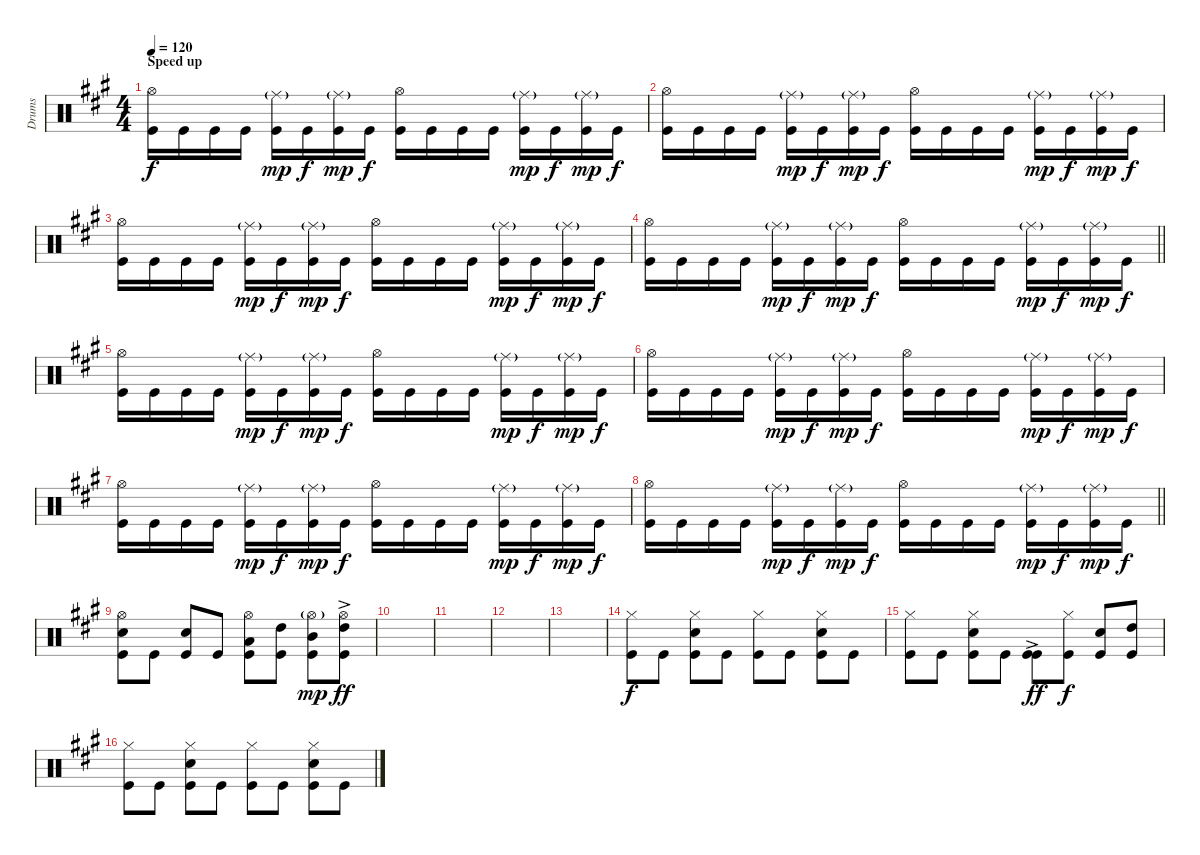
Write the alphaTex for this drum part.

\track ("Drums" "Drums") {instrument percussion}
\staff {score}
\articulation defaults
\ts (4 4)
\section ("" "Speed up")
\tempo 120
\clef neutral
\ks a
("Hi-Hat (open)" "Kick (hit)").16{dy f} "Kick (hit)".16 "Kick (hit)".16 "Kick (hit)".16 ("Ride (middle)"{g} "Kick (hit)").16{dy mp} "Kick (hit)".16{dy f} ("Ride (middle)"{g} "Kick (hit)").16{dy mp} "Kick (hit)".16{dy f} ("Hi-Hat (open)" "Kick (hit)").16 "Kick (hit)".16 "Kick (hit)".16 "Kick (hit)".16 ("Ride (middle)"{g} "Kick (hit)").16{dy mp} "Kick (hit)".16{dy f} ("Ride (middle)"{g} "Kick (hit)").16{dy mp} "Kick (hit)".16{dy f} |
("Hi-Hat (open)" "Kick (hit)").16 "Kick (hit)".16 "Kick (hit)".16 "Kick (hit)".16 ("Ride (middle)"{g} "Kick (hit)").16{dy mp} "Kick (hit)".16{dy f} ("Ride (middle)"{g} "Kick (hit)").16{dy mp} "Kick (hit)".16{dy f} ("Hi-Hat (open)" "Kick (hit)").16 "Kick (hit)".16 "Kick (hit)".16 "Kick (hit)".16 ("Ride (middle)"{g} "Kick (hit)").16{dy mp} "Kick (hit)".16{dy f} ("Ride (middle)"{g} "Kick (hit)").16{dy mp} "Kick (hit)".16{dy f} |
("Hi-Hat (open)" "Kick (hit)").16 "Kick (hit)".16 "Kick (hit)".16 "Kick (hit)".16 ("Ride (middle)"{g} "Kick (hit)").16{dy mp} "Kick (hit)".16{dy f} ("Ride (middle)"{g} "Kick (hit)").16{dy mp} "Kick (hit)".16{dy f} ("Hi-Hat (open)" "Kick (hit)").16 "Kick (hit)".16 "Kick (hit)".16 "Kick (hit)".16 ("Ride (middle)"{g} "Kick (hit)").16{dy mp} "Kick (hit)".16{dy f} ("Ride (middle)"{g} "Kick (hit)").16{dy mp} "Kick (hit)".16{dy f} |
\barLineRight lightlight
("Hi-Hat (open)" "Kick (hit)").16 "Kick (hit)".16 "Kick (hit)".16 "Kick (hit)".16 ("Ride (middle)"{g} "Kick (hit)").16{dy mp} "Kick (hit)".16{dy f} ("Ride (middle)"{g} "Kick (hit)").16{dy mp} "Kick (hit)".16{dy f} ("Hi-Hat (open)" "Kick (hit)").16 "Kick (hit)".16 "Kick (hit)".16 "Kick (hit)".16 ("Ride (middle)"{g} "Kick (hit)").16{dy mp} "Kick (hit)".16{dy f} ("Ride (middle)"{g} "Kick (hit)").16{dy mp} "Kick (hit)".16{dy f} |
("Hi-Hat (open)" "Kick (hit)").16 "Kick (hit)".16 "Kick (hit)".16 "Kick (hit)".16 ("Ride (middle)"{g} "Kick (hit)").16{dy mp} "Kick (hit)".16{dy f} ("Ride (middle)"{g} "Kick (hit)").16{dy mp} "Kick (hit)".16{dy f} ("Hi-Hat (open)" "Kick (hit)").16 "Kick (hit)".16 "Kick (hit)".16 "Kick (hit)".16 ("Ride (middle)"{g} "Kick (hit)").16{dy mp} "Kick (hit)".16{dy f} ("Ride (middle)"{g} "Kick (hit)").16{dy mp} "Kick (hit)".16{dy f} |
("Hi-Hat (open)" "Kick (hit)").16 "Kick (hit)".16 "Kick (hit)".16 "Kick (hit)".16 ("Ride (middle)"{g} "Kick (hit)").16{dy mp} "Kick (hit)".16{dy f} ("Ride (middle)"{g} "Kick (hit)").16{dy mp} "Kick (hit)".16{dy f} ("Hi-Hat (open)" "Kick (hit)").16 "Kick (hit)".16 "Kick (hit)".16 "Kick (hit)".16 ("Ride (middle)"{g} "Kick (hit)").16{dy mp} "Kick (hit)".16{dy f} ("Ride (middle)"{g} "Kick (hit)").16{dy mp} "Kick (hit)".16{dy f} |
("Hi-Hat (open)" "Kick (hit)").16 "Kick (hit)".16 "Kick (hit)".16 "Kick (hit)".16 ("Ride (middle)"{g} "Kick (hit)").16{dy mp} "Kick (hit)".16{dy f} ("Ride (middle)"{g} "Kick (hit)").16{dy mp} "Kick (hit)".16{dy f} ("Hi-Hat (open)" "Kick (hit)").16 "Kick (hit)".16 "Kick (hit)".16 "Kick (hit)".16 ("Ride (middle)"{g} "Kick (hit)").16{dy mp} "Kick (hit)".16{dy f} ("Ride (middle)"{g} "Kick (hit)").16{dy mp} "Kick (hit)".16{dy f} |
\barLineRight lightlight
("Hi-Hat (open)" "Kick (hit)").16 "Kick (hit)".16 "Kick (hit)".16 "Kick (hit)".16 ("Ride (middle)"{g} "Kick (hit)").16{dy mp} "Kick (hit)".16{dy f} ("Ride (middle)"{g} "Kick (hit)").16{dy mp} "Kick (hit)".16{dy f} ("Hi-Hat (open)" "Kick (hit)").16 "Kick (hit)".16 "Kick (hit)".16 "Kick (hit)".16 ("Ride (middle)"{g} "Kick (hit)").16{dy mp} "Kick (hit)".16{dy f} ("Ride (middle)"{g} "Kick (hit)").16{dy mp} "Kick (hit)".16{dy f} |
("Hi-Hat (open)" "Snare (hit) 2" "Kick (hit)").8 "Kick (hit)".8 ("Snare (hit) 2" "Kick (hit)").8 "Kick (hit)".8 ("Hi-Hat (open)" "Low Tom (hit)" "Kick (hit)").8 ("High Tom (hit)" "Kick (hit)").8 ("Hi-Hat (open)"{g} "Mid Tom (hit)" "Kick (hit)").8{dy mp} ("Hi-Hat (open)"{ac} "High Tom (hit)" "Kick (hit)").8{dy ff} |
|
|
|
|
("Hi-Hat (closed)" "Kick (hit)").8{dy f} "Kick (hit)".8 ("Hi-Hat (closed)" "Snare (hit) 2" "Kick (hit)").8 "Kick (hit)".8 ("Hi-Hat (closed)" "Kick (hit)").8 "Kick (hit)".8 ("Hi-Hat (closed)" "Snare (hit) 2" "Kick (hit)").8 "Kick (hit)".8 |
("Hi-Hat (closed)" "Kick (hit)").8 "Kick (hit)".8 ("Hi-Hat (closed)" "Snare (hit) 2" "Kick (hit)").8 "Kick (hit)".8 ("Kick (hit)"{ac} "Kick (hit)"{ac}).8{dy ff} ("Hi-Hat (closed)" "Kick (hit)").8{dy f} ("Snare (hit) 2" "Kick (hit)").8 ("High Tom (hit)" "Kick (hit)").8 |
("Hi-Hat (closed)" "Kick (hit)").8 "Kick (hit)".8 ("Hi-Hat (closed)" "Snare (hit) 2" "Kick (hit)").8 "Kick (hit)".8 ("Hi-Hat (closed)" "Kick (hit)").8 "Kick (hit)".8 ("Hi-Hat (closed)" "Snare (hit) 2" "Kick (hit)").8 "Kick (hit)".8
